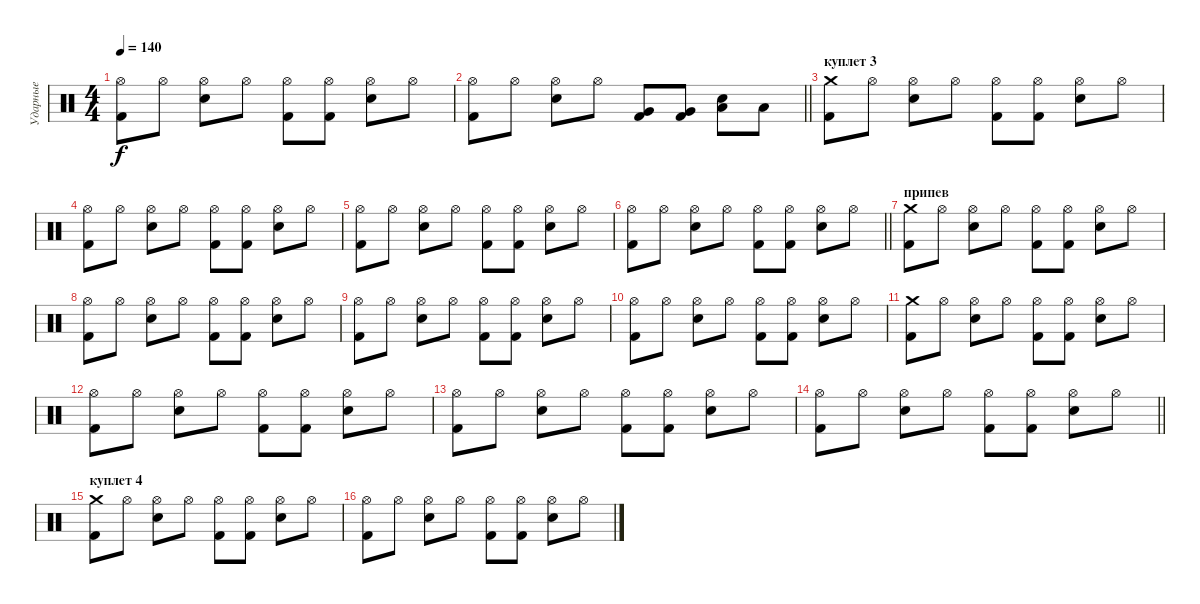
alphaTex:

\track ("Ударные" "Ударные") {instrument percussion}
\staff {score}
\articulation defaults
\ts (4 4)
\tempo 140
\clef neutral
\ks c
("Hi-Hat (open)" "Kick (hit) 2").8{dy f} "Hi-Hat (open)".8 ("Hi-Hat (open)" "Electric Snare (hit)").8 "Hi-Hat (open)".8 ("Hi-Hat (open)" "Kick (hit) 2").8 ("Hi-Hat (open)" "Kick (hit) 2").8 ("Hi-Hat (open)" "Electric Snare (hit)").8 "Hi-Hat (open)".8 |
\barLineRight lightlight
("Hi-Hat (open)" "Kick (hit) 2").8 "Hi-Hat (open)".8 ("Hi-Hat (open)" "Electric Snare (hit)").8 "Hi-Hat (open)".8 ("Very Low Tom (hit)" "Kick (hit) 2").8 ("Very Low Tom (hit)" "Kick (hit) 2").8 ("Low Floor Tom (hit)" "Electric Snare (hit)").8 "Low Floor Tom (hit)".8 |
\section ("" "куплет 3")
("Crash medium (hit)" "Kick (hit) 2").8 "Hi-Hat (open)".8 ("Hi-Hat (open)" "Electric Snare (hit)").8 "Hi-Hat (open)".8 ("Hi-Hat (open)" "Kick (hit) 2").8 ("Hi-Hat (open)" "Kick (hit) 2").8 ("Hi-Hat (open)" "Electric Snare (hit)").8 "Hi-Hat (open)".8 |
("Hi-Hat (open)" "Kick (hit) 2").8 "Hi-Hat (open)".8 ("Hi-Hat (open)" "Electric Snare (hit)").8 "Hi-Hat (open)".8 ("Hi-Hat (open)" "Kick (hit) 2").8 ("Hi-Hat (open)" "Kick (hit) 2").8 ("Hi-Hat (open)" "Electric Snare (hit)").8 "Hi-Hat (open)".8 |
("Hi-Hat (open)" "Kick (hit) 2").8 "Hi-Hat (open)".8 ("Hi-Hat (open)" "Electric Snare (hit)").8 "Hi-Hat (open)".8 ("Hi-Hat (open)" "Kick (hit) 2").8 ("Hi-Hat (open)" "Kick (hit) 2").8 ("Hi-Hat (open)" "Electric Snare (hit)").8 "Hi-Hat (open)".8 |
\barLineRight lightlight
("Hi-Hat (open)" "Kick (hit) 2").8 "Hi-Hat (open)".8 ("Hi-Hat (open)" "Electric Snare (hit)").8 "Hi-Hat (open)".8 ("Hi-Hat (open)" "Kick (hit) 2").8 ("Hi-Hat (open)" "Kick (hit) 2").8 ("Hi-Hat (open)" "Electric Snare (hit)").8 "Hi-Hat (open)".8 |
\section ("" "припев")
("Crash medium (hit)" "Kick (hit) 2").8 "Hi-Hat (open)".8 ("Hi-Hat (open)" "Electric Snare (hit)").8 "Hi-Hat (open)".8 ("Hi-Hat (open)" "Kick (hit) 2").8 ("Hi-Hat (open)" "Kick (hit) 2").8 ("Hi-Hat (open)" "Electric Snare (hit)").8 "Hi-Hat (open)".8 |
("Hi-Hat (open)" "Kick (hit) 2").8 "Hi-Hat (open)".8 ("Hi-Hat (open)" "Electric Snare (hit)").8 "Hi-Hat (open)".8 ("Hi-Hat (open)" "Kick (hit) 2").8 ("Hi-Hat (open)" "Kick (hit) 2").8 ("Hi-Hat (open)" "Electric Snare (hit)").8 "Hi-Hat (open)".8 |
("Hi-Hat (open)" "Kick (hit) 2").8 "Hi-Hat (open)".8 ("Hi-Hat (open)" "Electric Snare (hit)").8 "Hi-Hat (open)".8 ("Hi-Hat (open)" "Kick (hit) 2").8 ("Hi-Hat (open)" "Kick (hit) 2").8 ("Hi-Hat (open)" "Electric Snare (hit)").8 "Hi-Hat (open)".8 |
("Hi-Hat (open)" "Kick (hit) 2").8 "Hi-Hat (open)".8 ("Hi-Hat (open)" "Electric Snare (hit)").8 "Hi-Hat (open)".8 ("Hi-Hat (open)" "Kick (hit) 2").8 ("Hi-Hat (open)" "Kick (hit) 2").8 ("Hi-Hat (open)" "Electric Snare (hit)").8 "Hi-Hat (open)".8 |
("Crash medium (hit)" "Kick (hit) 2").8 "Hi-Hat (open)".8 ("Hi-Hat (open)" "Electric Snare (hit)").8 "Hi-Hat (open)".8 ("Hi-Hat (open)" "Kick (hit) 2").8 ("Hi-Hat (open)" "Kick (hit) 2").8 ("Hi-Hat (open)" "Electric Snare (hit)").8 "Hi-Hat (open)".8 |
("Hi-Hat (open)" "Kick (hit) 2").8 "Hi-Hat (open)".8 ("Hi-Hat (open)" "Electric Snare (hit)").8 "Hi-Hat (open)".8 ("Hi-Hat (open)" "Kick (hit) 2").8 ("Hi-Hat (open)" "Kick (hit) 2").8 ("Hi-Hat (open)" "Electric Snare (hit)").8 "Hi-Hat (open)".8 |
("Hi-Hat (open)" "Kick (hit) 2").8 "Hi-Hat (open)".8 ("Hi-Hat (open)" "Electric Snare (hit)").8 "Hi-Hat (open)".8 ("Hi-Hat (open)" "Kick (hit) 2").8 ("Hi-Hat (open)" "Kick (hit) 2").8 ("Hi-Hat (open)" "Electric Snare (hit)").8 "Hi-Hat (open)".8 |
\barLineRight lightlight
("Hi-Hat (open)" "Kick (hit) 2").8 "Hi-Hat (open)".8 ("Hi-Hat (open)" "Electric Snare (hit)").8 "Hi-Hat (open)".8 ("Hi-Hat (open)" "Kick (hit) 2").8 ("Hi-Hat (open)" "Kick (hit) 2").8 ("Hi-Hat (open)" "Electric Snare (hit)").8 "Hi-Hat (open)".8 |
\section ("" "куплет 4")
("Crash medium (hit)" "Kick (hit) 2").8 "Hi-Hat (open)".8 ("Hi-Hat (open)" "Electric Snare (hit)").8 "Hi-Hat (open)".8 ("Hi-Hat (open)" "Kick (hit) 2").8 ("Hi-Hat (open)" "Kick (hit) 2").8 ("Hi-Hat (open)" "Electric Snare (hit)").8 "Hi-Hat (open)".8 |
("Hi-Hat (open)" "Kick (hit) 2").8 "Hi-Hat (open)".8 ("Hi-Hat (open)" "Electric Snare (hit)").8 "Hi-Hat (open)".8 ("Hi-Hat (open)" "Kick (hit) 2").8 ("Hi-Hat (open)" "Kick (hit) 2").8 ("Hi-Hat (open)" "Electric Snare (hit)").8 "Hi-Hat (open)".8
